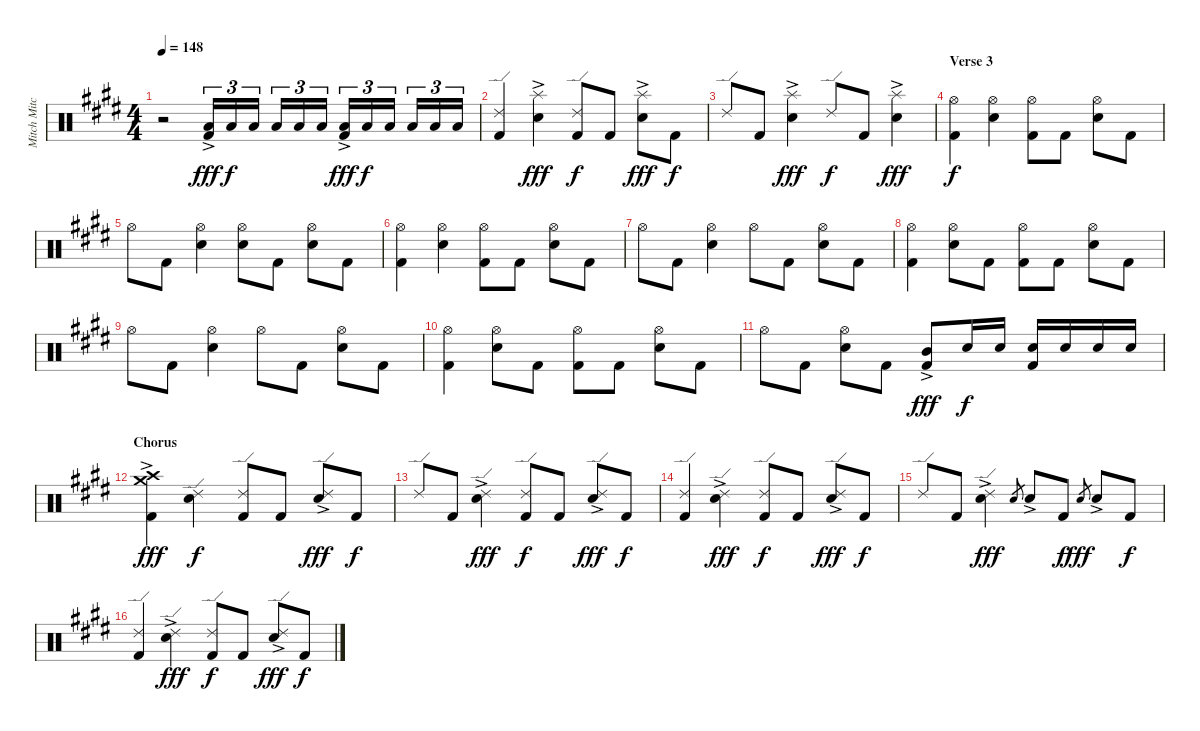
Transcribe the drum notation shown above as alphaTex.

\track ("Mitch Mitchell" "Mitch Mitc") {instrument percussion}
\staff {score}
\articulation defaults
\ts (4 4)
\tempo 148
\clef neutral
\ks e
r.2{dy f} ("Low Tom (hit)"{ac} "Kick (hit) 2"{ac}).16{tu (3 2) dy fff} "Low Tom (hit)".16{tu (3 2) dy f} "Low Tom (hit)".16{tu (3 2)} "Low Tom (hit)".16{tu (3 2)} "Low Tom (hit)".16{tu (3 2)} "Low Tom (hit)".16{tu (3 2)} ("Low Tom (hit)"{ac} "Kick (hit) 2"{ac}).16{tu (3 2) dy fff} "Low Tom (hit)".16{tu (3 2) dy f} "Low Tom (hit)".16{tu (3 2)} "Low Tom (hit)".16{tu (3 2)} "Low Tom (hit)".16{tu (3 2)} "Low Tom (hit)".16{tu (3 2)} |
("Ride (edge) 2" "Kick (hit) 2").4 ("Splash (hit)"{ac} "Snare (hit) 2"{ac}).4{dy fff} ("Ride (edge) 2" "Kick (hit) 2").8{dy f} "Kick (hit) 2".8 ("Splash (hit)"{ac} "Snare (hit) 2"{ac}).8{dy fff} "Kick (hit) 2".8{dy f} |
"Ride (edge) 2".8 "Kick (hit) 2".8 ("Splash (hit)"{ac} "Snare (hit) 2"{ac}).4{dy fff} "Ride (edge) 2".8{dy f} "Kick (hit) 2".8 ("Splash (hit)"{ac} "Snare (hit) 2"{ac}).4{dy fff} |
\section ("" "Verse 3")
("Hi-Hat (open)" "Kick (hit) 2").4{dy f} ("Hi-Hat (open)" "Snare (hit) 2").4 ("Hi-Hat (open)" "Kick (hit) 2").8 "Kick (hit) 2".8 ("Hi-Hat (open)" "Snare (hit) 2").8 "Kick (hit) 2".8 |
"Hi-Hat (open)".8 "Kick (hit) 2".8 ("Hi-Hat (open)" "Snare (hit) 2").4 ("Hi-Hat (open)" "Snare (hit) 2").8 "Kick (hit) 2".8 ("Hi-Hat (open)" "Snare (hit) 2").8 "Kick (hit) 2".8 |
("Hi-Hat (open)" "Kick (hit) 2").4 ("Hi-Hat (open)" "Snare (hit) 2").4 ("Hi-Hat (open)" "Kick (hit) 2").8 "Kick (hit) 2".8 ("Hi-Hat (open)" "Snare (hit) 2").8 "Kick (hit) 2".8 |
"Hi-Hat (open)".8 "Kick (hit) 2".8 ("Hi-Hat (open)" "Snare (hit) 2").4 "Hi-Hat (open)".8 "Kick (hit) 2".8 ("Hi-Hat (open)" "Snare (hit) 2").8 "Kick (hit) 2".8 |
("Hi-Hat (open)" "Kick (hit) 2").4 ("Hi-Hat (open)" "Snare (hit) 2").8 "Kick (hit) 2".8 ("Hi-Hat (open)" "Kick (hit) 2").8 "Kick (hit) 2".8 ("Hi-Hat (open)" "Snare (hit) 2").8 "Kick (hit) 2".8 |
"Hi-Hat (open)".8 "Kick (hit) 2".8 ("Hi-Hat (open)" "Snare (hit) 2").4 "Hi-Hat (open)".8 "Kick (hit) 2".8 ("Hi-Hat (open)" "Snare (hit) 2").8 "Kick (hit) 2".8 |
("Hi-Hat (open)" "Kick (hit) 2").4 ("Hi-Hat (open)" "Snare (hit) 2").8 "Kick (hit) 2".8 ("Hi-Hat (open)" "Kick (hit) 2").8 "Kick (hit) 2".8 ("Hi-Hat (open)" "Snare (hit) 2").8 "Kick (hit) 2".8 |
"Hi-Hat (open)".8 "Kick (hit) 2".8 ("Hi-Hat (open)" "Snare (hit) 2").8 "Kick (hit) 2".8 ("Mid Tom (hit)"{ac} "Kick (hit) 2").8{dy fff} "Snare (hit) 2".16{dy f} "Snare (hit) 2".16 ("Snare (hit) 2" "Kick (hit) 2").16 "Snare (hit) 2".16 "Snare (hit) 2".16 "Snare (hit) 2".16 |
\section ("" "Chorus")
("Crash high (hit)"{ac} "Crash medium (hit)"{ac} "Kick (hit) 2"{ac}).4{dy fff} ("Ride (edge) 2" "Snare (hit) 2").4{dy f} ("Ride (edge) 2" "Kick (hit) 2").8 "Kick (hit) 2".8 ("Ride (edge) 2"{ac} "Snare (hit) 2"{ac}).8{dy fff} "Kick (hit) 2".8{dy f} |
"Ride (edge) 2".8 "Kick (hit) 2".8 ("Ride (edge) 2"{ac} "Snare (hit) 2"{ac}).4{dy fff} ("Ride (edge) 2" "Kick (hit) 2").8{dy f} "Kick (hit) 2".8 ("Ride (edge) 2"{ac} "Snare (hit) 2"{ac}).8{dy fff} "Kick (hit) 2".8{dy f} |
("Ride (edge) 2" "Kick (hit) 2").4 ("Ride (edge) 2"{ac} "Snare (hit) 2"{ac}).4{dy fff} ("Ride (edge) 2" "Kick (hit) 2").8{dy f} "Kick (hit) 2".8 ("Ride (edge) 2"{ac} "Snare (hit) 2"{ac}).8{dy fff} "Kick (hit) 2".8{dy f} |
"Ride (edge) 2".8 "Kick (hit) 2".8 ("Ride (edge) 2"{ac} "Snare (hit) 2"{ac}).4{dy fff} "Snare (hit) 2".8{gr} "Snare (hit) 2"{ac}.8 "Kick (hit) 2".8{dy f} "Snare (hit) 2".8{gr dy fff} "Snare (hit) 2"{ac}.8 "Kick (hit) 2".8{dy f} |
("Ride (edge) 2" "Kick (hit) 2").4 ("Ride (edge) 2"{ac} "Snare (hit) 2"{ac}).4{dy fff} ("Ride (edge) 2" "Kick (hit) 2").8{dy f} "Kick (hit) 2".8 ("Ride (edge) 2"{ac} "Snare (hit) 2"{ac}).8{dy fff} "Kick (hit) 2".8{dy f}
